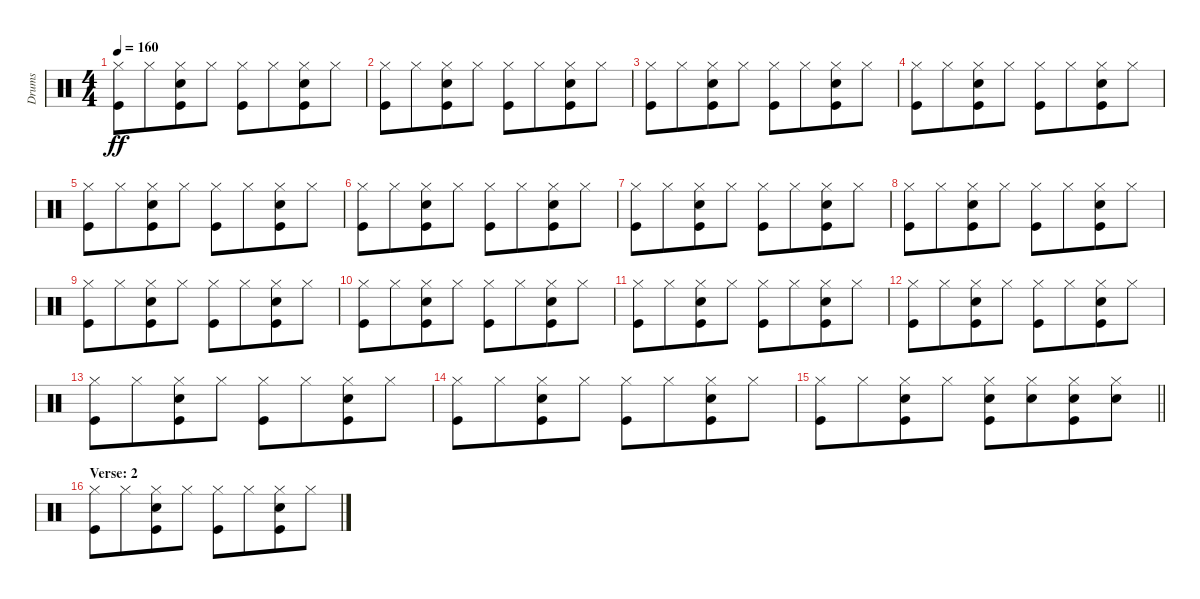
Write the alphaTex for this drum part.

\track ("Drums" "Drums") {instrument percussion}
\staff {score}
\articulation defaults
\ts (4 4)
\tempo 160
\clef neutral
\ks c
("Hi-Hat (closed)" "Kick (hit)").8{dy ff} "Hi-Hat (closed)".8{beam merge} ("Hi-Hat (closed)" "Snare (hit) 2" "Kick (hit)").8 "Hi-Hat (closed)".8 ("Hi-Hat (closed)" "Kick (hit)").8 "Hi-Hat (closed)".8{beam merge} ("Hi-Hat (closed)" "Snare (hit) 2" "Kick (hit)").8 "Hi-Hat (closed)".8 |
("Hi-Hat (closed)" "Kick (hit)").8 "Hi-Hat (closed)".8{beam merge} ("Hi-Hat (closed)" "Snare (hit) 2" "Kick (hit)").8 "Hi-Hat (closed)".8 ("Hi-Hat (closed)" "Kick (hit)").8 "Hi-Hat (closed)".8{beam merge} ("Hi-Hat (closed)" "Snare (hit) 2" "Kick (hit)").8 "Hi-Hat (closed)".8 |
("Hi-Hat (closed)" "Kick (hit)").8 "Hi-Hat (closed)".8{beam merge} ("Hi-Hat (closed)" "Snare (hit) 2" "Kick (hit)").8 "Hi-Hat (closed)".8 ("Hi-Hat (closed)" "Kick (hit)").8 "Hi-Hat (closed)".8{beam merge} ("Hi-Hat (closed)" "Snare (hit) 2" "Kick (hit)").8 "Hi-Hat (closed)".8 |
("Hi-Hat (closed)" "Kick (hit)").8 "Hi-Hat (closed)".8{beam merge} ("Hi-Hat (closed)" "Snare (hit) 2" "Kick (hit)").8 "Hi-Hat (closed)".8 ("Hi-Hat (closed)" "Kick (hit)").8 "Hi-Hat (closed)".8{beam merge} ("Hi-Hat (closed)" "Snare (hit) 2" "Kick (hit)").8 "Hi-Hat (closed)".8 |
("Hi-Hat (closed)" "Kick (hit)").8 "Hi-Hat (closed)".8{beam merge} ("Hi-Hat (closed)" "Snare (hit) 2" "Kick (hit)").8 "Hi-Hat (closed)".8 ("Hi-Hat (closed)" "Kick (hit)").8 "Hi-Hat (closed)".8{beam merge} ("Hi-Hat (closed)" "Snare (hit) 2" "Kick (hit)").8 "Hi-Hat (closed)".8 |
("Hi-Hat (closed)" "Kick (hit)").8 "Hi-Hat (closed)".8{beam merge} ("Hi-Hat (closed)" "Snare (hit) 2" "Kick (hit)").8 "Hi-Hat (closed)".8 ("Hi-Hat (closed)" "Kick (hit)").8 "Hi-Hat (closed)".8{beam merge} ("Hi-Hat (closed)" "Snare (hit) 2" "Kick (hit)").8 "Hi-Hat (closed)".8 |
("Hi-Hat (closed)" "Kick (hit)").8 "Hi-Hat (closed)".8{beam merge} ("Hi-Hat (closed)" "Snare (hit) 2" "Kick (hit)").8 "Hi-Hat (closed)".8 ("Hi-Hat (closed)" "Kick (hit)").8 "Hi-Hat (closed)".8{beam merge} ("Hi-Hat (closed)" "Snare (hit) 2" "Kick (hit)").8 "Hi-Hat (closed)".8 |
("Hi-Hat (closed)" "Kick (hit)").8 "Hi-Hat (closed)".8{beam merge} ("Hi-Hat (closed)" "Snare (hit) 2" "Kick (hit)").8 "Hi-Hat (closed)".8 ("Hi-Hat (closed)" "Kick (hit)").8 "Hi-Hat (closed)".8{beam merge} ("Hi-Hat (closed)" "Snare (hit) 2" "Kick (hit)").8 "Hi-Hat (closed)".8 |
("Hi-Hat (closed)" "Kick (hit)").8 "Hi-Hat (closed)".8{beam merge} ("Hi-Hat (closed)" "Snare (hit) 2" "Kick (hit)").8 "Hi-Hat (closed)".8 ("Hi-Hat (closed)" "Kick (hit)").8 "Hi-Hat (closed)".8{beam merge} ("Hi-Hat (closed)" "Snare (hit) 2" "Kick (hit)").8 "Hi-Hat (closed)".8 |
("Hi-Hat (closed)" "Kick (hit)").8 "Hi-Hat (closed)".8{beam merge} ("Hi-Hat (closed)" "Snare (hit) 2" "Kick (hit)").8 "Hi-Hat (closed)".8 ("Hi-Hat (closed)" "Kick (hit)").8 "Hi-Hat (closed)".8{beam merge} ("Hi-Hat (closed)" "Snare (hit) 2" "Kick (hit)").8 "Hi-Hat (closed)".8 |
("Hi-Hat (closed)" "Kick (hit)").8 "Hi-Hat (closed)".8{beam merge} ("Hi-Hat (closed)" "Snare (hit) 2" "Kick (hit)").8 "Hi-Hat (closed)".8 ("Hi-Hat (closed)" "Kick (hit)").8 "Hi-Hat (closed)".8{beam merge} ("Hi-Hat (closed)" "Snare (hit) 2" "Kick (hit)").8 "Hi-Hat (closed)".8 |
("Hi-Hat (closed)" "Kick (hit)").8 "Hi-Hat (closed)".8{beam merge} ("Hi-Hat (closed)" "Snare (hit) 2" "Kick (hit)").8 "Hi-Hat (closed)".8 ("Hi-Hat (closed)" "Kick (hit)").8 "Hi-Hat (closed)".8{beam merge} ("Hi-Hat (closed)" "Snare (hit) 2" "Kick (hit)").8 "Hi-Hat (closed)".8 |
("Hi-Hat (closed)" "Kick (hit)").8 "Hi-Hat (closed)".8{beam merge} ("Hi-Hat (closed)" "Snare (hit) 2" "Kick (hit)").8 "Hi-Hat (closed)".8 ("Hi-Hat (closed)" "Kick (hit)").8 "Hi-Hat (closed)".8{beam merge} ("Hi-Hat (closed)" "Snare (hit) 2" "Kick (hit)").8 "Hi-Hat (closed)".8 |
("Hi-Hat (closed)" "Kick (hit)").8 "Hi-Hat (closed)".8{beam merge} ("Hi-Hat (closed)" "Snare (hit) 2" "Kick (hit)").8 "Hi-Hat (closed)".8 ("Hi-Hat (closed)" "Kick (hit)").8 "Hi-Hat (closed)".8{beam merge} ("Hi-Hat (closed)" "Snare (hit) 2" "Kick (hit)").8 "Hi-Hat (closed)".8 |
\barLineRight lightlight
("Hi-Hat (closed)" "Kick (hit)").8 "Hi-Hat (closed)".8{beam merge} ("Hi-Hat (closed)" "Snare (hit) 2" "Kick (hit)").8 "Hi-Hat (closed)".8 ("Hi-Hat (closed)" "Snare (hit) 2" "Kick (hit)").8 ("Hi-Hat (closed)" "Snare (hit) 2").8{beam merge} ("Hi-Hat (closed)" "Snare (hit) 2" "Kick (hit)").8 ("Hi-Hat (closed)" "Snare (hit) 2").8 |
\section ("" "Verse: 2")
("Hi-Hat (closed)" "Kick (hit)").8 "Hi-Hat (closed)".8{beam merge} ("Hi-Hat (closed)" "Snare (hit) 2" "Kick (hit)").8 "Hi-Hat (closed)".8 ("Hi-Hat (closed)" "Kick (hit)").8 "Hi-Hat (closed)".8{beam merge} ("Hi-Hat (closed)" "Snare (hit) 2" "Kick (hit)").8 "Hi-Hat (closed)".8
